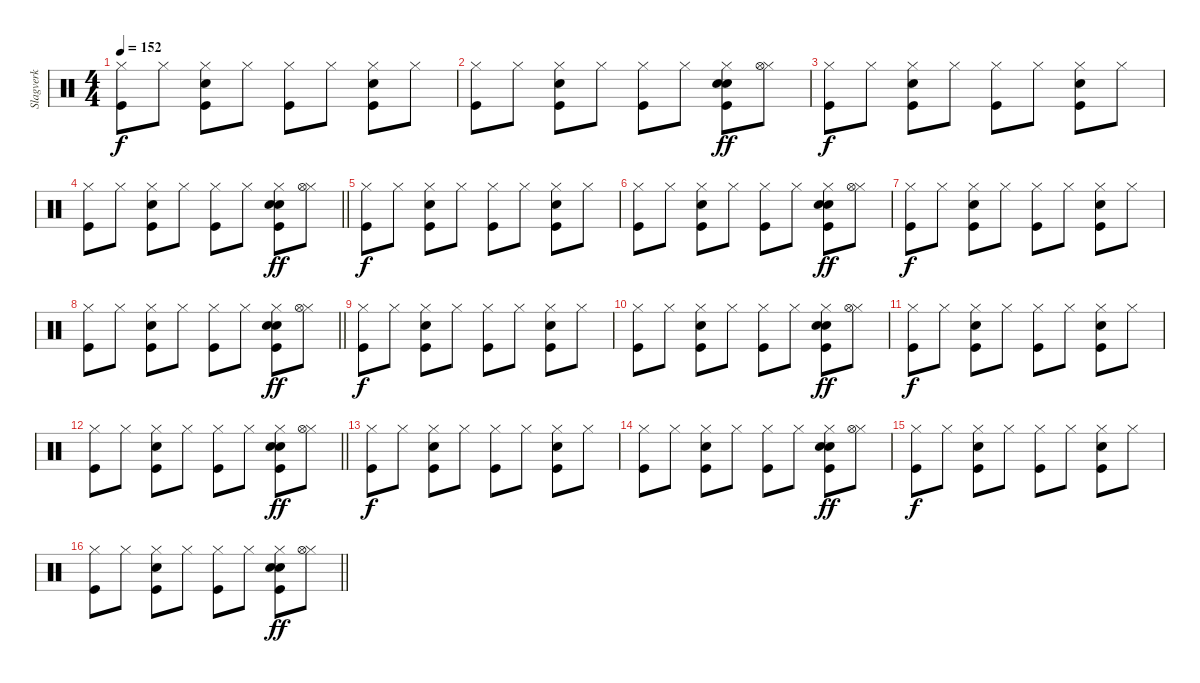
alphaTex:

\track ("Slagverk" "Slagverk") {instrument percussion}
\staff {score}
\articulation defaults
\ts (4 4)
\tempo 152
\clef neutral
\ks c
("Kick (hit)" "Hi-Hat (closed)").8{dy f} "Hi-Hat (closed)".8 ("Kick (hit)" "Hi-Hat (closed)" "Snare (hit) 2").8 "Hi-Hat (closed)".8 ("Kick (hit)" "Hi-Hat (closed)").8 "Hi-Hat (closed)".8 ("Kick (hit)" "Hi-Hat (closed)" "Snare (hit) 2").8 "Hi-Hat (closed)".8 |
("Kick (hit)" "Hi-Hat (closed)").8 "Hi-Hat (closed)".8 ("Kick (hit)" "Hi-Hat (closed)" "Snare (hit) 2").8 "Hi-Hat (closed)".8 ("Kick (hit)" "Hi-Hat (closed)").8 "Hi-Hat (closed)".8 ("Kick (hit)" "Hi-Hat (closed)" "Electric Snare (hit)" "Snare (hit) 2").8{dy ff} ("Hi-Hat (closed)" "Hi-Hat (open)").8 |
("Kick (hit)" "Hi-Hat (closed)").8{dy f} "Hi-Hat (closed)".8 ("Kick (hit)" "Hi-Hat (closed)" "Snare (hit) 2").8 "Hi-Hat (closed)".8 ("Kick (hit)" "Hi-Hat (closed)").8 "Hi-Hat (closed)".8 ("Kick (hit)" "Hi-Hat (closed)" "Snare (hit) 2").8 "Hi-Hat (closed)".8 |
\barLineRight lightlight
("Kick (hit)" "Hi-Hat (closed)").8 "Hi-Hat (closed)".8 ("Kick (hit)" "Hi-Hat (closed)" "Snare (hit) 2").8 "Hi-Hat (closed)".8 ("Kick (hit)" "Hi-Hat (closed)").8 "Hi-Hat (closed)".8 ("Kick (hit)" "Hi-Hat (closed)" "Electric Snare (hit)" "Snare (hit) 2").8{dy ff} ("Hi-Hat (closed)" "Hi-Hat (open)").8 |
("Kick (hit)" "Hi-Hat (closed)").8{dy f} "Hi-Hat (closed)".8 ("Kick (hit)" "Hi-Hat (closed)" "Snare (hit) 2").8 "Hi-Hat (closed)".8 ("Kick (hit)" "Hi-Hat (closed)").8 "Hi-Hat (closed)".8 ("Kick (hit)" "Hi-Hat (closed)" "Snare (hit) 2").8 "Hi-Hat (closed)".8 |
("Kick (hit)" "Hi-Hat (closed)").8 "Hi-Hat (closed)".8 ("Kick (hit)" "Hi-Hat (closed)" "Snare (hit) 2").8 "Hi-Hat (closed)".8 ("Kick (hit)" "Hi-Hat (closed)").8 "Hi-Hat (closed)".8 ("Kick (hit)" "Hi-Hat (closed)" "Electric Snare (hit)" "Snare (hit) 2").8{dy ff} ("Hi-Hat (closed)" "Hi-Hat (open)").8 |
("Kick (hit)" "Hi-Hat (closed)").8{dy f} "Hi-Hat (closed)".8 ("Kick (hit)" "Hi-Hat (closed)" "Snare (hit) 2").8 "Hi-Hat (closed)".8 ("Kick (hit)" "Hi-Hat (closed)").8 "Hi-Hat (closed)".8 ("Kick (hit)" "Hi-Hat (closed)" "Snare (hit) 2").8 "Hi-Hat (closed)".8 |
\barLineRight lightlight
("Kick (hit)" "Hi-Hat (closed)").8 "Hi-Hat (closed)".8 ("Kick (hit)" "Hi-Hat (closed)" "Snare (hit) 2").8 "Hi-Hat (closed)".8 ("Kick (hit)" "Hi-Hat (closed)").8 "Hi-Hat (closed)".8 ("Kick (hit)" "Hi-Hat (closed)" "Electric Snare (hit)" "Snare (hit) 2").8{dy ff} ("Hi-Hat (closed)" "Hi-Hat (open)").8 |
("Kick (hit)" "Hi-Hat (closed)").8{dy f} "Hi-Hat (closed)".8 ("Kick (hit)" "Hi-Hat (closed)" "Snare (hit) 2").8 "Hi-Hat (closed)".8 ("Kick (hit)" "Hi-Hat (closed)").8 "Hi-Hat (closed)".8 ("Kick (hit)" "Hi-Hat (closed)" "Snare (hit) 2").8 "Hi-Hat (closed)".8 |
("Kick (hit)" "Hi-Hat (closed)").8 "Hi-Hat (closed)".8 ("Kick (hit)" "Hi-Hat (closed)" "Snare (hit) 2").8 "Hi-Hat (closed)".8 ("Kick (hit)" "Hi-Hat (closed)").8 "Hi-Hat (closed)".8 ("Kick (hit)" "Hi-Hat (closed)" "Electric Snare (hit)" "Snare (hit) 2").8{dy ff} ("Hi-Hat (closed)" "Hi-Hat (open)").8 |
("Kick (hit)" "Hi-Hat (closed)").8{dy f} "Hi-Hat (closed)".8 ("Kick (hit)" "Hi-Hat (closed)" "Snare (hit) 2").8 "Hi-Hat (closed)".8 ("Kick (hit)" "Hi-Hat (closed)").8 "Hi-Hat (closed)".8 ("Kick (hit)" "Hi-Hat (closed)" "Snare (hit) 2").8 "Hi-Hat (closed)".8 |
\barLineRight lightlight
("Kick (hit)" "Hi-Hat (closed)").8 "Hi-Hat (closed)".8 ("Kick (hit)" "Hi-Hat (closed)" "Snare (hit) 2").8 "Hi-Hat (closed)".8 ("Kick (hit)" "Hi-Hat (closed)").8 "Hi-Hat (closed)".8 ("Kick (hit)" "Hi-Hat (closed)" "Electric Snare (hit)" "Snare (hit) 2").8{dy ff} ("Hi-Hat (closed)" "Hi-Hat (open)").8 |
("Kick (hit)" "Hi-Hat (closed)").8{dy f} "Hi-Hat (closed)".8 ("Kick (hit)" "Hi-Hat (closed)" "Snare (hit) 2").8 "Hi-Hat (closed)".8 ("Kick (hit)" "Hi-Hat (closed)").8 "Hi-Hat (closed)".8 ("Kick (hit)" "Hi-Hat (closed)" "Snare (hit) 2").8 "Hi-Hat (closed)".8 |
("Kick (hit)" "Hi-Hat (closed)").8 "Hi-Hat (closed)".8 ("Kick (hit)" "Hi-Hat (closed)" "Snare (hit) 2").8 "Hi-Hat (closed)".8 ("Kick (hit)" "Hi-Hat (closed)").8 "Hi-Hat (closed)".8 ("Kick (hit)" "Hi-Hat (closed)" "Electric Snare (hit)" "Snare (hit) 2").8{dy ff} ("Hi-Hat (closed)" "Hi-Hat (open)").8 |
("Kick (hit)" "Hi-Hat (closed)").8{dy f} "Hi-Hat (closed)".8 ("Kick (hit)" "Hi-Hat (closed)" "Snare (hit) 2").8 "Hi-Hat (closed)".8 ("Kick (hit)" "Hi-Hat (closed)").8 "Hi-Hat (closed)".8 ("Kick (hit)" "Hi-Hat (closed)" "Snare (hit) 2").8 "Hi-Hat (closed)".8 |
\barLineRight lightlight
("Kick (hit)" "Hi-Hat (closed)").8 "Hi-Hat (closed)".8 ("Kick (hit)" "Hi-Hat (closed)" "Snare (hit) 2").8 "Hi-Hat (closed)".8 ("Kick (hit)" "Hi-Hat (closed)").8 "Hi-Hat (closed)".8 ("Kick (hit)" "Hi-Hat (closed)" "Electric Snare (hit)" "Snare (hit) 2").8{dy ff} ("Hi-Hat (closed)" "Hi-Hat (open)").8
